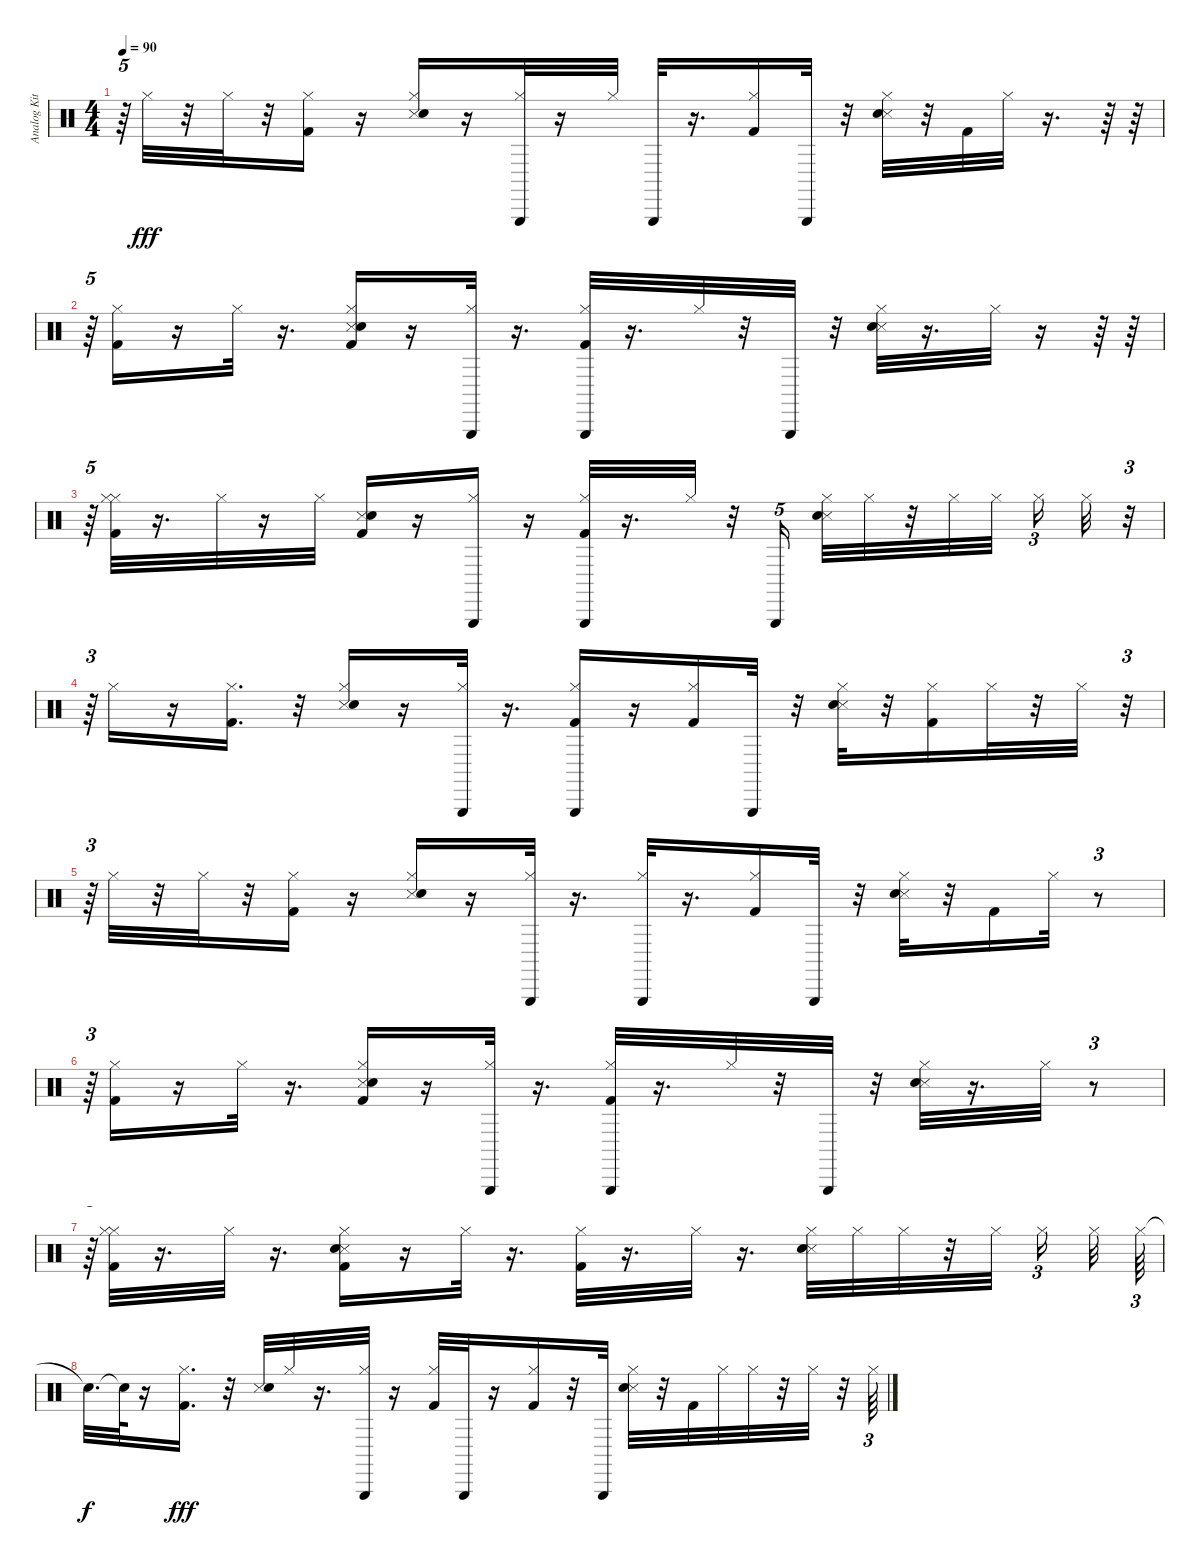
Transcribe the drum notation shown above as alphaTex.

\track ("Analog Kit" "Analog Kit") {instrument percussion}
\staff {score}
\articulation defaults
\ts (4 4)
\tempo 90
\clef neutral
\ks c
r.64{tu (5 4) dy fff} "Hi-Hat (closed)".32 r.32 "Hi-Hat (closed)".32 r.32 ("Hi-Hat (closed)" "Kick (hit) 2").16 r.16 ("Snare (side stick) 3" "Electric Snare (hit)" "Hi-Hat (closed)").16 r.16 ("Hi-Hat (closed)" "Triangle (hit)").32 r.16 "Hi-Hat (closed)".32 "Triangle (hit)".32 r.16{d} ("Kick (hit) 2" "Hi-Hat (closed)").16 "Triangle (hit)".32 r.32 ("Snare (side stick) 3" "Electric Snare (hit)" "Hi-Hat (closed)").32 r.32 "Kick (hit) 2".32 "Hi-Hat (closed)".32 r.16{d} r.64 r.64 |
r.64{tu (5 4)} ("Hi-Hat (closed)" "Kick (hit) 2").16 r.16 "Hi-Hat (closed)".32 r.16{d} ("Snare (side stick) 3" "Kick (hit) 2" "Electric Snare (hit)" "Hi-Hat (closed)").16 r.16 ("Triangle (hit)" "Hi-Hat (closed)").32 r.16{d} ("Kick (hit) 2" "Hi-Hat (closed)" "Triangle (hit)").32 r.16{d} "Hi-Hat (closed)".32 r.32 "Triangle (hit)".32 r.32 ("Snare (side stick) 3" "Electric Snare (hit)" "Hi-Hat (closed)").32 r.16{d} "Hi-Hat (closed)".32 r.16 r.64 r.64 |
r.64{tu (5 4)} ("Hi-Hat (closed)" "Hi-Hat (closed)" "Kick (hit) 2").32 r.16{d} "Hi-Hat (closed)".32 r.16 "Hi-Hat (closed)".32 ("Snare (side stick) 3" "Kick (hit) 2" "Electric Snare (hit)").16 r.16 ("Hi-Hat (closed)" "Triangle (hit)").16 r.16 ("Kick (hit) 2" "Hi-Hat (closed)" "Triangle (hit)").32 r.16{d} "Hi-Hat (closed)".32 r.32 "Triangle (hit)".16{tu (5 4)} ("Hi-Hat (closed)" "Snare (side stick) 3" "Electric Snare (hit)").32 "Hi-Hat (closed)".32 r.32 "Hi-Hat (closed)".32 "Hi-Hat (closed)".32{beam splitsecondary} "Hi-Hat (closed)".16{tu (3 2)} "Hi-Hat (closed)".32 r.32{tu (3 2)} |
r.64{tu (3 2)} "Hi-Hat (closed)".16 r.16 ("Kick (hit) 2" "Hi-Hat (closed)").16{d} r.32 ("Snare (side stick) 3" "Electric Snare (hit)" "Hi-Hat (closed)").16 r.16 ("Hi-Hat (closed)" "Triangle (hit)").32 r.16{d} ("Hi-Hat (closed)" "Kick (hit) 2" "Triangle (hit)").16 r.16 ("Kick (hit) 2" "Hi-Hat (closed)").16 "Triangle (hit)".32 r.32 ("Snare (side stick) 3" "Electric Snare (hit)" "Hi-Hat (closed)").32 r.32 ("Kick (hit) 2" "Hi-Hat (closed)").16 "Hi-Hat (closed)".32 r.32 "Hi-Hat (closed)".32 r.32{tu (3 2)} |
r.64{tu (3 2)} "Hi-Hat (closed)".32 r.32 "Hi-Hat (closed)".32 r.32 ("Hi-Hat (closed)" "Kick (hit) 2").16 r.16 ("Snare (side stick) 3" "Electric Snare (hit)" "Hi-Hat (closed)").16 r.16 ("Hi-Hat (closed)" "Triangle (hit)").32 r.16{d} ("Hi-Hat (closed)" "Triangle (hit)").32 r.16{d} ("Kick (hit) 2" "Hi-Hat (closed)").16 "Triangle (hit)".32 r.32 ("Snare (side stick) 3" "Electric Snare (hit)" "Hi-Hat (closed)").32 r.32 "Kick (hit) 2".16 "Hi-Hat (closed)".32 r.8{tu (3 2)} |
r.64{tu (3 2)} ("Hi-Hat (closed)" "Kick (hit) 2").16 r.16 "Hi-Hat (closed)".32 r.16{d} ("Snare (side stick) 3" "Kick (hit) 2" "Electric Snare (hit)" "Hi-Hat (closed)").16 r.16 ("Triangle (hit)" "Hi-Hat (closed)").32 r.16{d} ("Kick (hit) 2" "Hi-Hat (closed)" "Triangle (hit)").32 r.16{d} "Hi-Hat (closed)".32 r.32 "Triangle (hit)".32 r.32 ("Snare (side stick) 3" "Electric Snare (hit)" "Hi-Hat (closed)").32 r.16{d} "Hi-Hat (closed)".32 r.8{tu (3 2)} |
r.64{tu (3 2)} ("Hi-Hat (closed)" "Hi-Hat (closed)" "Kick (hit) 2").32 r.16{d} "Hi-Hat (closed)".32 r.16{d} ("Hi-Hat (closed)" "Snare (side stick) 3" "Kick (hit) 2" "Electric Snare (hit)").16 r.16 "Hi-Hat (closed)".32 r.16{d} ("Kick (hit) 2" "Hi-Hat (closed)").32 r.16{d} "Hi-Hat (closed)".32 r.16{d} ("Hi-Hat (closed)" "Snare (side stick) 3" "Electric Snare (hit)").32 "Hi-Hat (closed)".32 "Hi-Hat (closed)".32 r.32 "Hi-Hat (closed)".32{beam splitsecondary} "Hi-Hat (closed)".16{tu (3 2) beam splitsecondary} "Hi-Hat (closed)".32 "Hi-Hat (closed)".64{tu (3 2)} |
"Snare (hit)"{t}.32{d dy f} "Snare (hit)"{t}.64 r.16 ("Kick (hit) 2" "Hi-Hat (closed)").16{d dy fff} r.32 ("Snare (side stick) 3" "Electric Snare (hit)").32 "Hi-Hat (closed)".32 r.16{d} ("Hi-Hat (closed)" "Triangle (hit)").32 r.16 ("Hi-Hat (closed)" "Kick (hit) 2").32 "Triangle (hit)".32 r.16 ("Kick (hit) 2" "Hi-Hat (closed)").16 r.32 "Triangle (hit)".32 ("Snare (side stick) 3" "Electric Snare (hit)" "Hi-Hat (closed)").32 r.32 "Kick (hit) 2".32 "Hi-Hat (closed)".32 "Hi-Hat (closed)".32 r.32 "Hi-Hat (closed)".32 r.32 "Hi-Hat (closed)".64{tu (3 2)}
